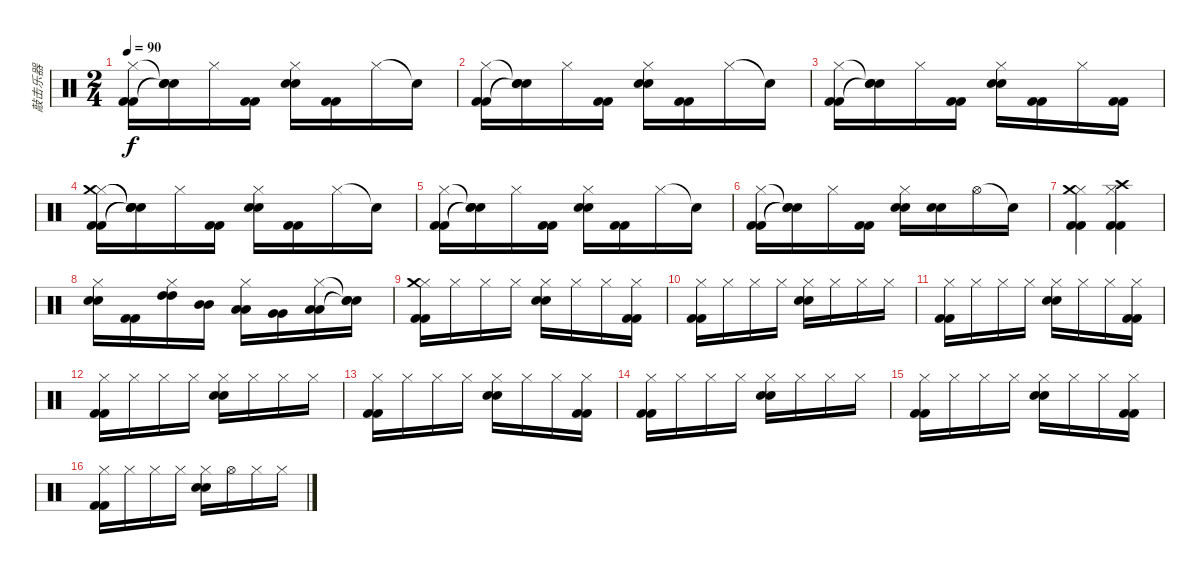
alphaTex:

\track ("敲击乐器" "敲击乐器") {instrument percussion}
\staff {score}
\articulation defaults
\ts (2 4)
\tempo 90
\clef neutral
\ks c
("Hi-Hat (closed)" "Kick (hit) 2" "Kick (hit) 2").16{dy f} ("Snare (hit)"{t} "Snare (hit)"{t} "Snare (hit)"{t}).16 "Hi-Hat (closed)".16 ("Kick (hit) 2" "Kick (hit) 2").16 ("Hi-Hat (closed)" "Electric Snare (hit)" "Electric Snare (hit)").16 ("Kick (hit) 2" "Kick (hit) 2").16 "Hi-Hat (closed)".16 "Snare (hit)"{t}.16 |
("Hi-Hat (closed)" "Kick (hit) 2" "Kick (hit) 2").16 ("Snare (hit)"{t} "Snare (hit)"{t} "Snare (hit)"{t}).16 "Hi-Hat (closed)".16 ("Kick (hit) 2" "Kick (hit) 2").16 ("Hi-Hat (closed)" "Electric Snare (hit)" "Electric Snare (hit)").16 ("Kick (hit) 2" "Kick (hit) 2").16 "Hi-Hat (closed)".16 "Snare (hit)"{t}.16 |
("Hi-Hat (closed)" "Kick (hit) 2" "Kick (hit) 2").16 ("Snare (hit)"{t} "Snare (hit)"{t} "Snare (hit)"{t}).16 "Hi-Hat (closed)".16 ("Kick (hit) 2" "Kick (hit) 2").16 ("Hi-Hat (closed)" "Electric Snare (hit)" "Electric Snare (hit)").16 ("Kick (hit) 2" "Kick (hit) 2").16 "Hi-Hat (closed)".16 ("Kick (hit) 2" "Kick (hit) 2").16 |
("Hi-Hat (closed)" "Crash medium (hit)" "Kick (hit) 2" "Kick (hit) 2").16 ("Snare (hit)"{t} "Snare (hit)"{t} "Snare (hit)"{t} "Snare (hit)"{t}).16 "Hi-Hat (closed)".16 ("Kick (hit) 2" "Kick (hit) 2").16 ("Hi-Hat (closed)" "Electric Snare (hit)" "Electric Snare (hit)").16 ("Kick (hit) 2" "Kick (hit) 2").16 "Hi-Hat (closed)".16 "Snare (hit)"{t}.16 |
("Hi-Hat (closed)" "Kick (hit) 2" "Kick (hit) 2").16 ("Snare (hit)"{t} "Snare (hit)"{t} "Snare (hit)"{t}).16 "Hi-Hat (closed)".16 ("Kick (hit) 2" "Kick (hit) 2").16 ("Hi-Hat (closed)" "Electric Snare (hit)" "Electric Snare (hit)").16 ("Kick (hit) 2" "Kick (hit) 2").16 "Hi-Hat (closed)".16 "Snare (hit)"{t}.16 |
("Hi-Hat (closed)" "Kick (hit) 2" "Kick (hit) 2").16 ("Snare (hit)"{t} "Snare (hit)"{t} "Snare (hit)"{t}).16 "Hi-Hat (closed)".16 ("Kick (hit) 2" "Kick (hit) 2").16 ("Hi-Hat (closed)" "Electric Snare (hit)" "Electric Snare (hit)").16 ("Electric Snare (hit)" "Electric Snare (hit)").16 "Hi-Hat (open)".16 "Snare (hit)"{t}.16 |
("Hi-Hat (closed)" "Crash medium (hit)" "Kick (hit) 2" "Kick (hit) 2").4 ("Hi-Hat (closed)" "Crash high (hit)" "Kick (hit) 2" "Kick (hit) 2").4 |
("Hi-Hat (closed)" "Electric Snare (hit)" "Electric Snare (hit)").16 ("Kick (hit) 2" "Kick (hit) 2").16 ("Hi-Hat (closed)" "High Tom (hit)" "High Tom (hit)").16 ("Mid Tom (hit)" "Mid Tom (hit)").16 ("Hi-Hat (closed)" "Low Tom (hit)" "Low Tom (hit)").16 ("Very Low Tom (hit)" "Very Low Tom (hit)").16 ("Hi-Hat (closed)" "Low Floor Tom (hit)" "Low Floor Tom (hit)").16 ("Snare (hit)"{t} "Snare (hit)"{t} "Snare (hit)"{t}).16 |
("Hi-Hat (closed)" "Crash medium (hit)" "Kick (hit) 2" "Kick (hit) 2").16 "Hi-Hat (closed)".16 "Hi-Hat (closed)".16 "Hi-Hat (closed)".16 ("Hi-Hat (closed)" "Electric Snare (hit)" "Electric Snare (hit)").16 "Hi-Hat (closed)".16 "Hi-Hat (closed)".16 ("Hi-Hat (closed)" "Kick (hit) 2" "Kick (hit) 2").16 |
("Hi-Hat (closed)" "Kick (hit) 2" "Kick (hit) 2").16 "Hi-Hat (closed)".16 "Hi-Hat (closed)".16 "Hi-Hat (closed)".16 ("Hi-Hat (closed)" "Electric Snare (hit)" "Electric Snare (hit)").16 "Hi-Hat (closed)".16 "Hi-Hat (closed)".16 "Hi-Hat (closed)".16 |
("Hi-Hat (closed)" "Kick (hit) 2" "Kick (hit) 2").16 "Hi-Hat (closed)".16 "Hi-Hat (closed)".16 "Hi-Hat (closed)".16 ("Hi-Hat (closed)" "Electric Snare (hit)" "Electric Snare (hit)").16 "Hi-Hat (closed)".16 "Hi-Hat (closed)".16 ("Hi-Hat (closed)" "Kick (hit) 2" "Kick (hit) 2").16 |
("Hi-Hat (closed)" "Kick (hit) 2" "Kick (hit) 2").16 "Hi-Hat (closed)".16 "Hi-Hat (closed)".16 "Hi-Hat (closed)".16 ("Hi-Hat (closed)" "Electric Snare (hit)" "Electric Snare (hit)").16 "Hi-Hat (closed)".16 "Hi-Hat (closed)".16 "Hi-Hat (closed)".16 |
("Hi-Hat (closed)" "Kick (hit) 2" "Kick (hit) 2").16 "Hi-Hat (closed)".16 "Hi-Hat (closed)".16 "Hi-Hat (closed)".16 ("Hi-Hat (closed)" "Electric Snare (hit)" "Electric Snare (hit)").16 "Hi-Hat (closed)".16 "Hi-Hat (closed)".16 ("Hi-Hat (closed)" "Kick (hit) 2" "Kick (hit) 2").16 |
("Hi-Hat (closed)" "Kick (hit) 2" "Kick (hit) 2").16 "Hi-Hat (closed)".16 "Hi-Hat (closed)".16 "Hi-Hat (closed)".16 ("Hi-Hat (closed)" "Electric Snare (hit)" "Electric Snare (hit)").16 "Hi-Hat (closed)".16 "Hi-Hat (closed)".16 "Hi-Hat (closed)".16 |
("Hi-Hat (closed)" "Kick (hit) 2" "Kick (hit) 2").16 "Hi-Hat (closed)".16 "Hi-Hat (closed)".16 "Hi-Hat (closed)".16 ("Hi-Hat (closed)" "Electric Snare (hit)" "Electric Snare (hit)").16 "Hi-Hat (closed)".16 "Hi-Hat (closed)".16 ("Hi-Hat (closed)" "Kick (hit) 2" "Kick (hit) 2").16 |
("Hi-Hat (closed)" "Kick (hit) 2" "Kick (hit) 2").16 "Hi-Hat (closed)".16 "Hi-Hat (closed)".16 "Hi-Hat (closed)".16 ("Hi-Hat (closed)" "Electric Snare (hit)" "Electric Snare (hit)").16 "Hi-Hat (open)".16 "Hi-Hat (closed)".16 "Hi-Hat (closed)".16
